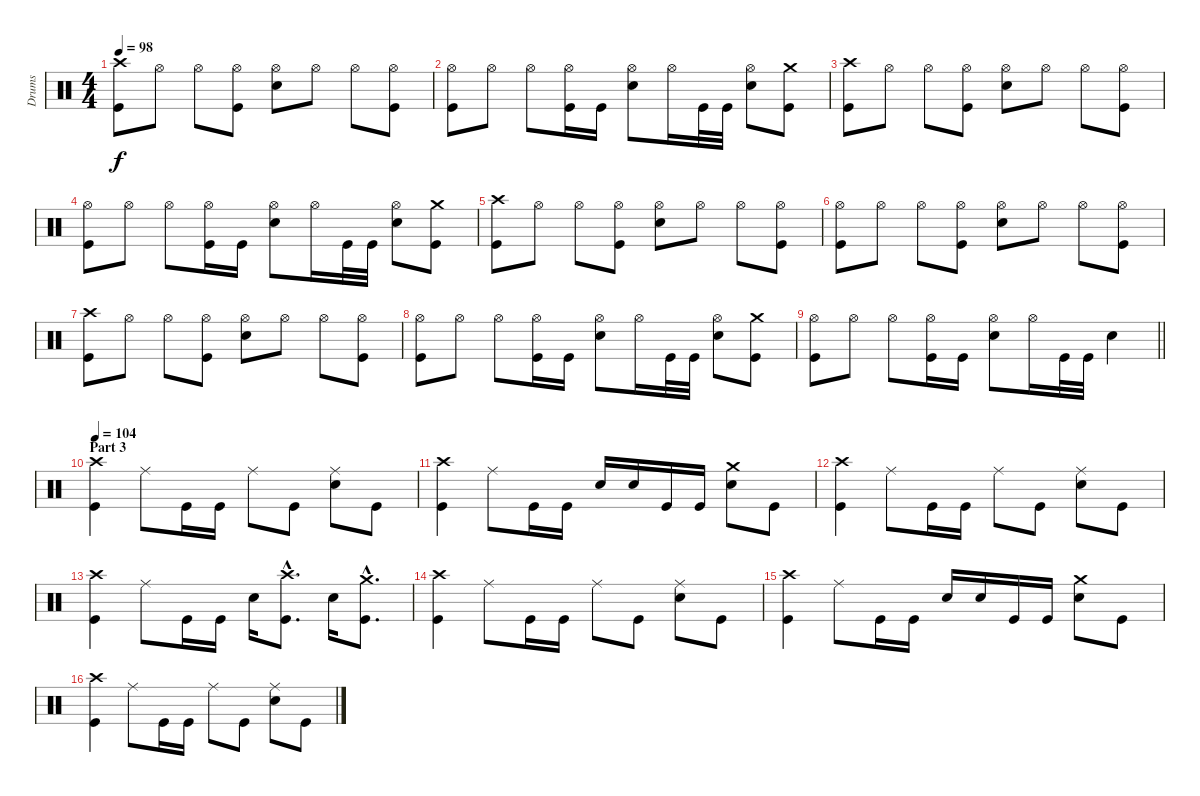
\track ("Drums" "Drums") {instrument percussion}
\staff {score}
\articulation defaults
\ts (4 4)
\tempo 98
\clef neutral
\ks c
("Crash high (hit)" "Kick (hit)").8{dy f} "Hi-Hat (open)".8 "Hi-Hat (open)".8 ("Hi-Hat (open)" "Kick (hit)").8 ("Hi-Hat (open)" "Snare (hit) 2").8 "Hi-Hat (open)".8 "Hi-Hat (open)".8 ("Hi-Hat (open)" "Kick (hit)").8 |
("Hi-Hat (open)" "Kick (hit)").8 "Hi-Hat (open)".8 "Hi-Hat (open)".8 ("Hi-Hat (open)" "Kick (hit)").16 "Kick (hit)".16 ("Hi-Hat (open)" "Snare (hit) 2").8 "Hi-Hat (open)".16 "Kick (hit)".32 "Kick (hit)".32 ("Hi-Hat (open)" "Snare (hit) 2").8 ("Crash medium (hit)" "Kick (hit)").8 |
("Crash high (hit)" "Kick (hit)").8 "Hi-Hat (open)".8 "Hi-Hat (open)".8 ("Hi-Hat (open)" "Kick (hit)").8 ("Hi-Hat (open)" "Snare (hit) 2").8 "Hi-Hat (open)".8 "Hi-Hat (open)".8 ("Hi-Hat (open)" "Kick (hit)").8 |
("Hi-Hat (open)" "Kick (hit)").8 "Hi-Hat (open)".8 "Hi-Hat (open)".8 ("Hi-Hat (open)" "Kick (hit)").16 "Kick (hit)".16 ("Hi-Hat (open)" "Snare (hit) 2").8 "Hi-Hat (open)".16 "Kick (hit)".32 "Kick (hit)".32 ("Hi-Hat (open)" "Snare (hit) 2").8 ("Crash medium (hit)" "Kick (hit)").8 |
("Crash high (hit)" "Kick (hit)").8 "Hi-Hat (open)".8 "Hi-Hat (open)".8 ("Hi-Hat (open)" "Kick (hit)").8 ("Hi-Hat (open)" "Snare (hit) 2").8 "Hi-Hat (open)".8 "Hi-Hat (open)".8 ("Hi-Hat (open)" "Kick (hit)").8 |
("Hi-Hat (open)" "Kick (hit)").8 "Hi-Hat (open)".8 "Hi-Hat (open)".8 ("Hi-Hat (open)" "Kick (hit)").8 ("Hi-Hat (open)" "Snare (hit) 2").8 "Hi-Hat (open)".8 "Hi-Hat (open)".8 ("Hi-Hat (open)" "Kick (hit)").8 |
("Crash high (hit)" "Kick (hit)").8 "Hi-Hat (open)".8 "Hi-Hat (open)".8 ("Hi-Hat (open)" "Kick (hit)").8 ("Hi-Hat (open)" "Snare (hit) 2").8 "Hi-Hat (open)".8 "Hi-Hat (open)".8 ("Hi-Hat (open)" "Kick (hit)").8 |
("Hi-Hat (open)" "Kick (hit)").8 "Hi-Hat (open)".8 "Hi-Hat (open)".8 ("Hi-Hat (open)" "Kick (hit)").16 "Kick (hit)".16 ("Hi-Hat (open)" "Snare (hit) 2").8 "Hi-Hat (open)".16 "Kick (hit)".32 "Kick (hit)".32 ("Hi-Hat (open)" "Snare (hit) 2").8 ("Crash medium (hit)" "Kick (hit)").8 |
\barLineRight lightlight
("Hi-Hat (open)" "Kick (hit)").8 "Hi-Hat (open)".8 "Hi-Hat (open)".8 ("Hi-Hat (open)" "Kick (hit)").16 "Kick (hit)".16 ("Hi-Hat (open)" "Snare (hit) 2").8 "Hi-Hat (open)".16 "Kick (hit)".32 "Kick (hit)".32 "Snare (hit) 2".4 |
\section ("" "Part 3")
\tempo 104
("Crash high (hit)" "Kick (hit)").4 "Ride (middle)".8 "Kick (hit)".16 "Kick (hit)".16 "Ride (middle)".8 "Kick (hit)".8 ("Ride (middle)" "Snare (hit) 2").8 "Kick (hit)".8 |
("Crash high (hit)" "Kick (hit)").4 "Ride (middle)".8 "Kick (hit)".16 "Kick (hit)".16 "Snare (hit) 2".16 "Snare (hit) 2".16 "Kick (hit)".16 "Kick (hit)".16 ("Crash medium (hit)" "Snare (hit) 2").8 "Kick (hit)".8 |
("Crash high (hit)" "Kick (hit)").4 "Ride (middle)".8 "Kick (hit)".16 "Kick (hit)".16 "Ride (middle)".8 "Kick (hit)".8 ("Ride (middle)" "Snare (hit) 2").8 "Kick (hit)".8 |
("Crash high (hit)" "Kick (hit)").4 "Ride (middle)".8 "Kick (hit)".16 "Kick (hit)".16 "Snare (hit) 2".16 ("Crash high (hit)"{hac} "Kick (hit)"{hac}).8{d} "Snare (hit) 2".16 ("Crash medium (hit)"{hac} "Kick (hit)"{hac}).8{d} |
("Crash high (hit)" "Kick (hit)").4 "Ride (middle)".8 "Kick (hit)".16 "Kick (hit)".16 "Ride (middle)".8 "Kick (hit)".8 ("Ride (middle)" "Snare (hit) 2").8 "Kick (hit)".8 |
("Crash high (hit)" "Kick (hit)").4 "Ride (middle)".8 "Kick (hit)".16 "Kick (hit)".16 "Snare (hit) 2".16 "Snare (hit) 2".16 "Kick (hit)".16 "Kick (hit)".16 ("Crash medium (hit)" "Snare (hit) 2").8 "Kick (hit)".8 |
("Crash high (hit)" "Kick (hit)").4 "Ride (middle)".8 "Kick (hit)".16 "Kick (hit)".16 "Ride (middle)".8 "Kick (hit)".8 ("Ride (middle)" "Snare (hit) 2").8 "Kick (hit)".8
